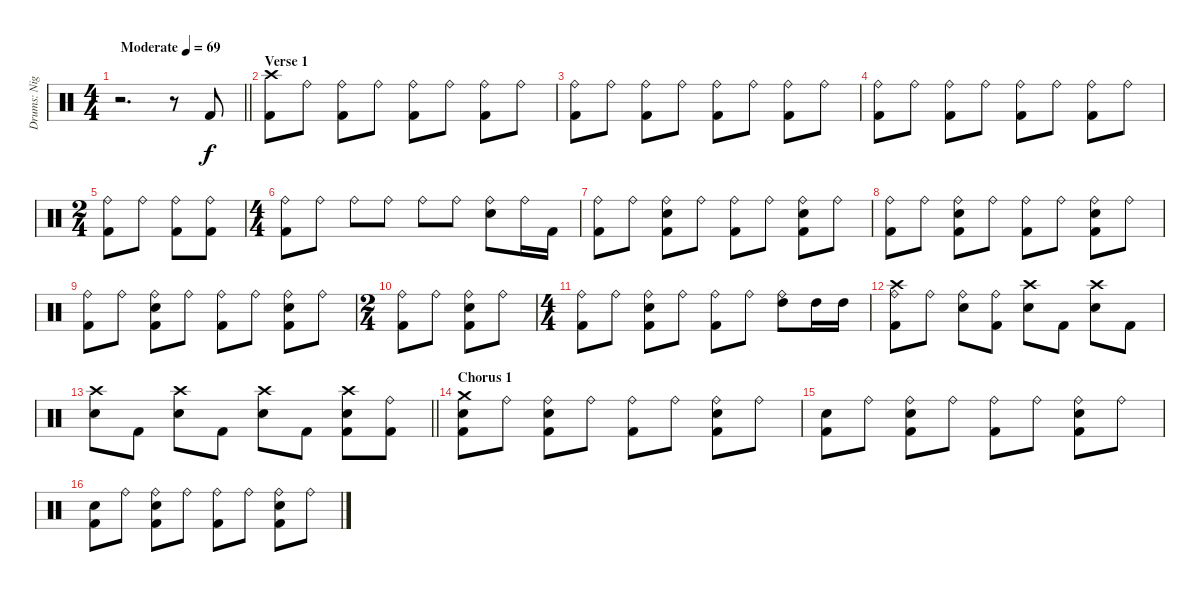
\track ("Drums: Nigel Olsson" "Drums: Nig") {instrument percussion}
\staff {score}
\articulation defaults
\ts (4 4)
\tempo (69 "Moderate")
\clef neutral
\barLineRight lightlight
\ks c
r.2{d dy f} r.8 "Kick (hit) 2".8 |
\section ("" "Verse 1")
("Crash high (hit)" "Kick (hit) 2").8 "Ride (bell)".8 ("Ride (bell)" "Kick (hit) 2").8 "Ride (bell)".8 ("Ride (bell)" "Kick (hit) 2").8 "Ride (bell)".8 ("Ride (bell)" "Kick (hit) 2").8 "Ride (bell)".8 |
("Ride (bell)" "Kick (hit) 2").8 "Ride (bell)".8 ("Ride (bell)" "Kick (hit) 2").8 "Ride (bell)".8 ("Ride (bell)" "Kick (hit) 2").8 "Ride (bell)".8 ("Ride (bell)" "Kick (hit) 2").8 "Ride (bell)".8 |
("Ride (bell)" "Kick (hit) 2").8 "Ride (bell)".8 ("Ride (bell)" "Kick (hit) 2").8 "Ride (bell)".8 ("Ride (bell)" "Kick (hit) 2").8 "Ride (bell)".8 ("Ride (bell)" "Kick (hit) 2").8 "Ride (bell)".8 |
\ts (2 4)
("Ride (bell)" "Kick (hit) 2").8 "Ride (bell)".8 ("Ride (bell)" "Kick (hit) 2").8 ("Kick (hit) 2" "Ride (bell)").8 |
\ts (4 4)
("Kick (hit) 2" "Ride (bell)").8 "Ride (bell)".8 "Ride (bell)".8 "Ride (bell)".8 "Ride (bell)".8 "Ride (bell)".8 ("Electric Snare (hit)" "Ride (bell)").8 "Ride (bell)".16 "Kick (hit) 2".16 |
("Ride (bell)" "Kick (hit) 2").8 "Ride (bell)".8 ("Ride (bell)" "Electric Snare (hit)" "Kick (hit) 2").8 "Ride (bell)".8 ("Ride (bell)" "Kick (hit) 2").8 "Ride (bell)".8 ("Electric Snare (hit)" "Ride (bell)" "Kick (hit) 2").8 "Ride (bell)".8 |
("Ride (bell)" "Kick (hit) 2").8 "Ride (bell)".8 ("Ride (bell)" "Electric Snare (hit)" "Kick (hit) 2").8 "Ride (bell)".8 ("Ride (bell)" "Kick (hit) 2").8 "Ride (bell)".8 ("Electric Snare (hit)" "Ride (bell)" "Kick (hit) 2").8 "Ride (bell)".8 |
("Ride (bell)" "Kick (hit) 2").8 "Ride (bell)".8 ("Ride (bell)" "Electric Snare (hit)" "Kick (hit) 2").8 "Ride (bell)".8 ("Ride (bell)" "Kick (hit) 2").8 "Ride (bell)".8 ("Electric Snare (hit)" "Ride (bell)" "Kick (hit) 2").8 "Ride (bell)".8 |
\ts (2 4)
("Ride (bell)" "Kick (hit) 2").8 "Ride (bell)".8 ("Ride (bell)" "Electric Snare (hit)" "Kick (hit) 2").8 "Ride (bell)".8 |
\ts (4 4)
("Ride (bell)" "Kick (hit) 2").8 "Ride (bell)".8 ("Electric Snare (hit)" "Ride (bell)" "Kick (hit) 2").8 "Ride (bell)".8 ("Ride (bell)" "Kick (hit) 2").8 "Ride (bell)".8 ("Ride (bell)" "High Tom (hit)").8 "High Tom (hit)".16 "High Tom (hit)".16 |
("Crash high (hit)" "Ride (bell)" "Kick (hit) 2").8 "Ride (bell)".8 ("Electric Snare (hit)" "Ride (bell)").8 ("Kick (hit) 2" "Ride (bell)").8 ("Crash high (hit)" "Electric Snare (hit)").8 "Kick (hit) 2".8 ("Crash high (hit)" "Electric Snare (hit)").8 "Kick (hit) 2".8 |
\barLineRight lightlight
("Crash high (hit)" "Electric Snare (hit)").8 "Kick (hit) 2".8 ("Crash high (hit)" "Electric Snare (hit)").8 "Kick (hit) 2".8 ("Crash high (hit)" "Electric Snare (hit)").8 "Kick (hit) 2".8 ("Crash high (hit)" "Electric Snare (hit)" "Kick (hit) 2").8 ("Kick (hit) 2" "Ride (bell)").8 |
\section ("" "Chorus 1")
("Crash medium (hit)" "Snare (hit) 2" "Kick (hit) 2").8 "Ride (bell)".8 ("Ride (bell)" "Snare (hit) 2" "Kick (hit) 2").8 "Ride (bell)".8 ("Ride (bell)" "Kick (hit) 2").8 "Ride (bell)".8 ("Ride (bell)" "Snare (hit) 2" "Kick (hit) 2").8 "Ride (bell)".8 |
("Snare (hit) 2" "Kick (hit) 2").8 "Ride (bell)".8 ("Ride (bell)" "Snare (hit) 2" "Kick (hit) 2").8 "Ride (bell)".8 ("Ride (bell)" "Kick (hit) 2").8 "Ride (bell)".8 ("Ride (bell)" "Snare (hit) 2" "Kick (hit) 2").8 "Ride (bell)".8 |
("Snare (hit) 2" "Kick (hit) 2").8 "Ride (bell)".8 ("Ride (bell)" "Snare (hit) 2" "Kick (hit) 2").8 "Ride (bell)".8 ("Ride (bell)" "Kick (hit) 2").8 "Ride (bell)".8 ("Ride (bell)" "Snare (hit) 2" "Kick (hit) 2").8 "Ride (bell)".8
